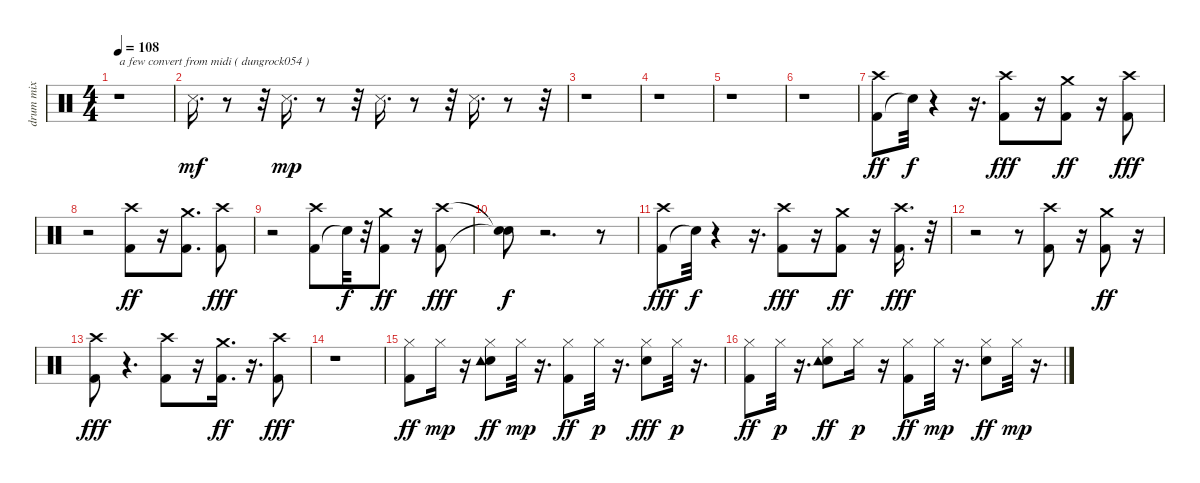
\track ("drum mix" "drum mix") {instrument percussion}
\staff {score}
\articulation defaults
\ts (4 4)
\tempo 108
\clef neutral
\ks c
r.1{txt "a few convert from midi ( dungrock054 )" dy mf} |
"Snare (side stick) 3".16{d} r.8 r.32 "Snare (side stick) 3".16{d dy mp} r.8 r.32 "Snare (side stick) 3".16{d} r.8 r.32 "Snare (side stick) 3".16{d} r.8 r.32 |
r.1 |
r.1 |
r.1 |
r.1 |
("Kick (hit) 2" "Crash high (hit)").8{dy ff} "Snare (hit)"{t}.32{dy f} r.4 r.16{d} ("Kick (hit) 2" "Crash high (hit)").8{dy fff} r.16 ("Kick (hit) 2" "Crash medium (hit)").8{dy ff} r.16 ("Kick (hit) 2" "Crash high (hit)").8{dy fff} |
r.2 ("Kick (hit) 2" "Crash high (hit)").8{dy ff} r.16 ("Kick (hit) 2" "Crash medium (hit)").8{d} ("Kick (hit) 2" "Crash high (hit)").8{dy fff} |
r.2 ("Kick (hit) 2" "Crash high (hit)").8 "Snare (hit)"{t}.32{dy f} r.32 ("Kick (hit) 2" "Crash medium (hit)").8{dy ff} r.16 ("Kick (hit) 2" "Crash high (hit)").8{dy fff} |
("Snare (hit)"{t} "Snare (hit)"{t}).8{dy f} r.2{d} r.8 |
("Kick (hit) 2" "Crash high (hit)").8{dy fff} "Snare (hit)"{t}.32{dy f} r.4 r.16{d} ("Kick (hit) 2" "Crash high (hit)").8{dy fff} r.16 ("Kick (hit) 2" "Crash medium (hit)").8{dy ff} r.16 ("Kick (hit) 2" "Crash high (hit)").16{d dy fff} r.32 |
r.2 r.8 ("Kick (hit) 2" "Crash high (hit)").8 r.16 ("Kick (hit) 2" "Crash medium (hit)").8{dy ff} r.16 |
("Kick (hit) 2" "Crash high (hit)").8{dy fff} r.4{d} ("Kick (hit) 2" "Crash high (hit)").8 r.16 ("Kick (hit) 2" "Crash medium (hit)").16{d dy ff} r.16{d} ("Kick (hit) 2" "Crash high (hit)").8{dy fff} |
r.1 |
("Kick (hit) 2" "Hi-Hat (closed)").8{dy ff} "Hi-Hat (closed)".16{dy mp} r.16 ("Electric Snare (hit)" "Hi-Hat (closed)" "Tambourine (hit)").8{dy ff} "Hi-Hat (closed)".32{dy mp} r.16{d} ("Kick (hit) 2" "Hi-Hat (closed)").8{dy ff} "Hi-Hat (closed)".32{dy p} r.16{d} ("Electric Snare (hit)" "Hi-Hat (closed)").8{dy fff} "Hi-Hat (closed)".32{dy p} r.16{d} |
("Kick (hit) 2" "Hi-Hat (closed)").8{dy ff} "Hi-Hat (closed)".32{dy p} r.16{d} ("Electric Snare (hit)" "Hi-Hat (closed)" "Tambourine (hit)").8{dy ff} "Hi-Hat (closed)".16{dy p} r.16 ("Kick (hit) 2" "Hi-Hat (closed)").8{dy ff} "Hi-Hat (closed)".32{dy mp} r.16{d} ("Electric Snare (hit)" "Hi-Hat (closed)").8{dy ff} "Hi-Hat (closed)".32{dy mp} r.16{d}
